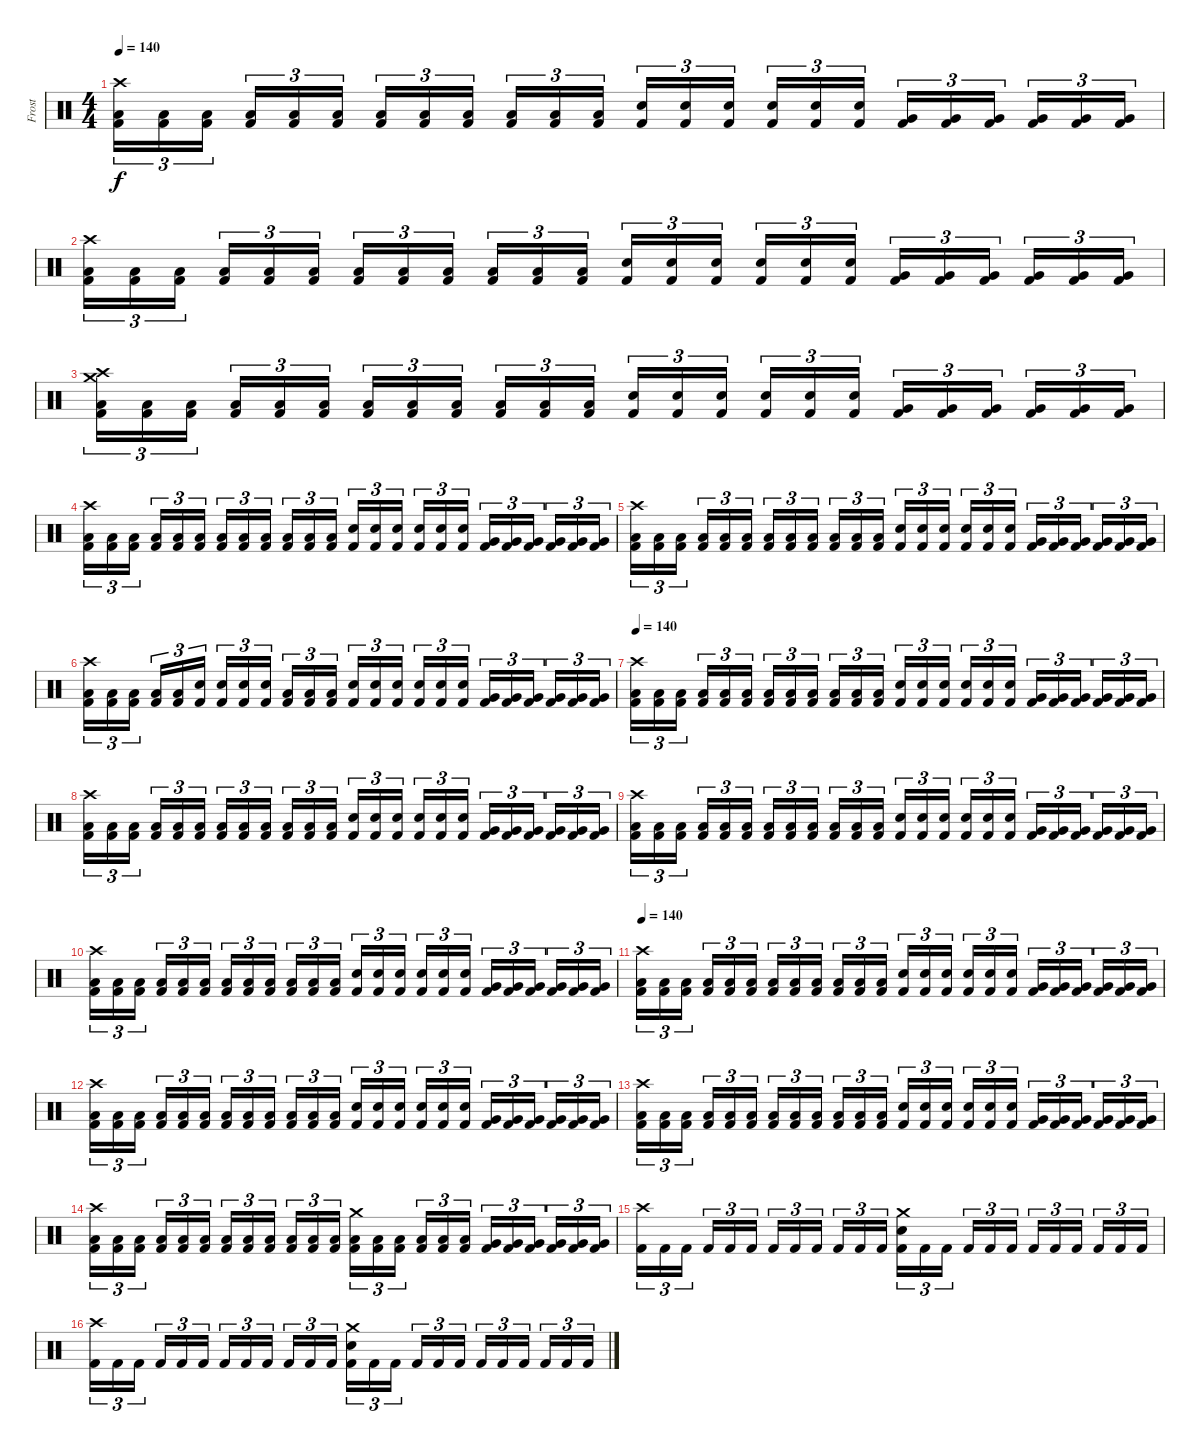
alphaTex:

\track ("Frost" "Frost") {instrument percussion}
\staff {score}
\articulation defaults
\ts (4 4)
\tempo 140
\clef neutral
\ks c
("Crash high (hit)" "Low Tom (hit)" "Kick (hit) 2").16{tu (3 2) dy f} ("Low Tom (hit)" "Kick (hit) 2").16{tu (3 2)} ("Low Tom (hit)" "Kick (hit) 2").16{tu (3 2) beam splitsecondary} ("Low Tom (hit)" "Kick (hit) 2").16{tu (3 2)} ("Low Tom (hit)" "Kick (hit) 2").16{tu (3 2)} ("Low Tom (hit)" "Kick (hit) 2").16{tu (3 2)} ("Low Tom (hit)" "Kick (hit) 2").16{tu (3 2)} ("Low Floor Tom (hit)" "Kick (hit) 2").16{tu (3 2)} ("Low Floor Tom (hit)" "Kick (hit) 2").16{tu (3 2) beam splitsecondary} ("Low Floor Tom (hit)" "Kick (hit) 2").16{tu (3 2)} ("Low Floor Tom (hit)" "Kick (hit) 2").16{tu (3 2)} ("Low Floor Tom (hit)" "Kick (hit) 2").16{tu (3 2)} ("Snare (hit) 2" "Kick (hit) 2").16{tu (3 2)} ("Snare (hit) 2" "Kick (hit) 2").16{tu (3 2)} ("Snare (hit) 2" "Kick (hit) 2").16{tu (3 2) beam splitsecondary} ("Snare (hit) 2" "Kick (hit) 2").16{tu (3 2)} ("Snare (hit) 2" "Kick (hit) 2").16{tu (3 2)} ("Snare (hit) 2" "Kick (hit) 2").16{tu (3 2)} ("Very Low Tom (hit)" "Kick (hit) 2").16{tu (3 2)} ("Very Low Tom (hit)" "Kick (hit) 2").16{tu (3 2)} ("Very Low Tom (hit)" "Kick (hit) 2").16{tu (3 2) beam splitsecondary} ("Very Low Tom (hit)" "Kick (hit) 2").16{tu (3 2)} ("Very Low Tom (hit)" "Kick (hit) 2").16{tu (3 2)} ("Very Low Tom (hit)" "Kick (hit) 2").16{tu (3 2)} |
("Crash high (hit)" "Low Tom (hit)" "Kick (hit) 2").16{tu (3 2)} ("Low Tom (hit)" "Kick (hit) 2").16{tu (3 2)} ("Low Tom (hit)" "Kick (hit) 2").16{tu (3 2) beam splitsecondary} ("Low Tom (hit)" "Kick (hit) 2").16{tu (3 2)} ("Low Tom (hit)" "Kick (hit) 2").16{tu (3 2)} ("Low Tom (hit)" "Kick (hit) 2").16{tu (3 2)} ("Low Tom (hit)" "Kick (hit) 2").16{tu (3 2)} ("Low Floor Tom (hit)" "Kick (hit) 2").16{tu (3 2)} ("Low Floor Tom (hit)" "Kick (hit) 2").16{tu (3 2) beam splitsecondary} ("Low Floor Tom (hit)" "Kick (hit) 2").16{tu (3 2)} ("Low Floor Tom (hit)" "Kick (hit) 2").16{tu (3 2)} ("Low Floor Tom (hit)" "Kick (hit) 2").16{tu (3 2)} ("Snare (hit) 2" "Kick (hit) 2").16{tu (3 2)} ("Snare (hit) 2" "Kick (hit) 2").16{tu (3 2)} ("Snare (hit) 2" "Kick (hit) 2").16{tu (3 2) beam splitsecondary} ("Snare (hit) 2" "Kick (hit) 2").16{tu (3 2)} ("Snare (hit) 2" "Kick (hit) 2").16{tu (3 2)} ("Snare (hit) 2" "Kick (hit) 2").16{tu (3 2)} ("Very Low Tom (hit)" "Kick (hit) 2").16{tu (3 2)} ("Very Low Tom (hit)" "Kick (hit) 2").16{tu (3 2)} ("Very Low Tom (hit)" "Kick (hit) 2").16{tu (3 2) beam splitsecondary} ("Very Low Tom (hit)" "Kick (hit) 2").16{tu (3 2)} ("Very Low Tom (hit)" "Kick (hit) 2").16{tu (3 2)} ("Very Low Tom (hit)" "Kick (hit) 2").16{tu (3 2)} |
("Crash medium (hit)" "Crash high (hit)" "Low Tom (hit)" "Kick (hit) 2").16{tu (3 2)} ("Low Tom (hit)" "Kick (hit) 2").16{tu (3 2)} ("Low Tom (hit)" "Kick (hit) 2").16{tu (3 2) beam splitsecondary} ("Low Tom (hit)" "Kick (hit) 2").16{tu (3 2)} ("Low Tom (hit)" "Kick (hit) 2").16{tu (3 2)} ("Low Tom (hit)" "Kick (hit) 2").16{tu (3 2)} ("Low Tom (hit)" "Kick (hit) 2").16{tu (3 2)} ("Low Floor Tom (hit)" "Kick (hit) 2").16{tu (3 2)} ("Low Floor Tom (hit)" "Kick (hit) 2").16{tu (3 2) beam splitsecondary} ("Low Floor Tom (hit)" "Kick (hit) 2").16{tu (3 2)} ("Low Floor Tom (hit)" "Kick (hit) 2").16{tu (3 2)} ("Low Floor Tom (hit)" "Kick (hit) 2").16{tu (3 2)} ("Snare (hit) 2" "Kick (hit) 2").16{tu (3 2)} ("Snare (hit) 2" "Kick (hit) 2").16{tu (3 2)} ("Snare (hit) 2" "Kick (hit) 2").16{tu (3 2) beam splitsecondary} ("Snare (hit) 2" "Kick (hit) 2").16{tu (3 2)} ("Snare (hit) 2" "Kick (hit) 2").16{tu (3 2)} ("Snare (hit) 2" "Kick (hit) 2").16{tu (3 2)} ("Very Low Tom (hit)" "Kick (hit) 2").16{tu (3 2)} ("Very Low Tom (hit)" "Kick (hit) 2").16{tu (3 2)} ("Very Low Tom (hit)" "Kick (hit) 2").16{tu (3 2) beam splitsecondary} ("Very Low Tom (hit)" "Kick (hit) 2").16{tu (3 2)} ("Very Low Tom (hit)" "Kick (hit) 2").16{tu (3 2)} ("Very Low Tom (hit)" "Kick (hit) 2").16{tu (3 2)} |
("Crash high (hit)" "Low Tom (hit)" "Kick (hit) 2").16{tu (3 2)} ("Low Tom (hit)" "Kick (hit) 2").16{tu (3 2)} ("Low Tom (hit)" "Kick (hit) 2").16{tu (3 2) beam splitsecondary} ("Low Tom (hit)" "Kick (hit) 2").16{tu (3 2)} ("Low Tom (hit)" "Kick (hit) 2").16{tu (3 2)} ("Low Tom (hit)" "Kick (hit) 2").16{tu (3 2)} ("Low Tom (hit)" "Kick (hit) 2").16{tu (3 2)} ("Low Floor Tom (hit)" "Kick (hit) 2").16{tu (3 2)} ("Low Floor Tom (hit)" "Kick (hit) 2").16{tu (3 2) beam splitsecondary} ("Low Floor Tom (hit)" "Kick (hit) 2").16{tu (3 2)} ("Low Floor Tom (hit)" "Kick (hit) 2").16{tu (3 2)} ("Low Floor Tom (hit)" "Kick (hit) 2").16{tu (3 2)} ("Snare (hit) 2" "Kick (hit) 2").16{tu (3 2)} ("Snare (hit) 2" "Kick (hit) 2").16{tu (3 2)} ("Snare (hit) 2" "Kick (hit) 2").16{tu (3 2) beam splitsecondary} ("Snare (hit) 2" "Kick (hit) 2").16{tu (3 2)} ("Snare (hit) 2" "Kick (hit) 2").16{tu (3 2)} ("Snare (hit) 2" "Kick (hit) 2").16{tu (3 2)} ("Very Low Tom (hit)" "Kick (hit) 2").16{tu (3 2)} ("Very Low Tom (hit)" "Kick (hit) 2").16{tu (3 2)} ("Very Low Tom (hit)" "Kick (hit) 2").16{tu (3 2) beam splitsecondary} ("Very Low Tom (hit)" "Kick (hit) 2").16{tu (3 2)} ("Very Low Tom (hit)" "Kick (hit) 2").16{tu (3 2)} ("Very Low Tom (hit)" "Kick (hit) 2").16{tu (3 2)} |
("Crash high (hit)" "Low Tom (hit)" "Kick (hit) 2").16{tu (3 2)} ("Low Tom (hit)" "Kick (hit) 2").16{tu (3 2)} ("Low Tom (hit)" "Kick (hit) 2").16{tu (3 2) beam splitsecondary} ("Low Tom (hit)" "Kick (hit) 2").16{tu (3 2)} ("Low Tom (hit)" "Kick (hit) 2").16{tu (3 2)} ("Low Tom (hit)" "Kick (hit) 2").16{tu (3 2)} ("Low Tom (hit)" "Kick (hit) 2").16{tu (3 2)} ("Low Floor Tom (hit)" "Kick (hit) 2").16{tu (3 2)} ("Low Floor Tom (hit)" "Kick (hit) 2").16{tu (3 2) beam splitsecondary} ("Low Floor Tom (hit)" "Kick (hit) 2").16{tu (3 2)} ("Low Floor Tom (hit)" "Kick (hit) 2").16{tu (3 2)} ("Low Floor Tom (hit)" "Kick (hit) 2").16{tu (3 2)} ("Snare (hit) 2" "Kick (hit) 2").16{tu (3 2)} ("Snare (hit) 2" "Kick (hit) 2").16{tu (3 2)} ("Snare (hit) 2" "Kick (hit) 2").16{tu (3 2) beam splitsecondary} ("Snare (hit) 2" "Kick (hit) 2").16{tu (3 2)} ("Snare (hit) 2" "Kick (hit) 2").16{tu (3 2)} ("Snare (hit) 2" "Kick (hit) 2").16{tu (3 2)} ("Very Low Tom (hit)" "Kick (hit) 2").16{tu (3 2)} ("Very Low Tom (hit)" "Kick (hit) 2").16{tu (3 2)} ("Very Low Tom (hit)" "Kick (hit) 2").16{tu (3 2) beam splitsecondary} ("Very Low Tom (hit)" "Kick (hit) 2").16{tu (3 2)} ("Very Low Tom (hit)" "Kick (hit) 2").16{tu (3 2)} ("Very Low Tom (hit)" "Kick (hit) 2").16{tu (3 2)} |
("Crash high (hit)" "Low Tom (hit)" "Kick (hit) 2").16{tu (3 2)} ("Low Tom (hit)" "Kick (hit) 2").16{tu (3 2)} ("Low Tom (hit)" "Kick (hit) 2").16{tu (3 2) beam splitsecondary} ("Low Tom (hit)" "Kick (hit) 2").16{tu (3 2)} ("Low Tom (hit)" "Kick (hit) 2").16{tu (3 2)} ("Snare (hit) 2" "Kick (hit) 2").16{tu (3 2)} ("Snare (hit) 2" "Kick (hit) 2").16{tu (3 2)} ("Snare (hit) 2" "Kick (hit) 2").16{tu (3 2)} ("Snare (hit) 2" "Kick (hit) 2").16{tu (3 2) beam splitsecondary} ("Low Floor Tom (hit)" "Kick (hit) 2").16{tu (3 2)} ("Low Floor Tom (hit)" "Kick (hit) 2").16{tu (3 2)} ("Low Floor Tom (hit)" "Kick (hit) 2").16{tu (3 2)} ("Snare (hit) 2" "Kick (hit) 2").16{tu (3 2)} ("Snare (hit) 2" "Kick (hit) 2").16{tu (3 2)} ("Snare (hit) 2" "Kick (hit) 2").16{tu (3 2) beam splitsecondary} ("Snare (hit) 2" "Kick (hit) 2").16{tu (3 2)} ("Snare (hit) 2" "Kick (hit) 2").16{tu (3 2)} ("Snare (hit) 2" "Kick (hit) 2").16{tu (3 2)} ("Very Low Tom (hit)" "Kick (hit) 2").16{tu (3 2)} ("Very Low Tom (hit)" "Kick (hit) 2").16{tu (3 2)} ("Very Low Tom (hit)" "Kick (hit) 2").16{tu (3 2) beam splitsecondary} ("Very Low Tom (hit)" "Kick (hit) 2").16{tu (3 2)} ("Very Low Tom (hit)" "Kick (hit) 2").16{tu (3 2)} ("Very Low Tom (hit)" "Kick (hit) 2").16{tu (3 2)} |
\tempo 140
("Crash high (hit)" "Low Tom (hit)" "Kick (hit) 2").16{tu (3 2)} ("Low Tom (hit)" "Kick (hit) 2").16{tu (3 2)} ("Low Tom (hit)" "Kick (hit) 2").16{tu (3 2) beam splitsecondary} ("Low Tom (hit)" "Kick (hit) 2").16{tu (3 2)} ("Low Tom (hit)" "Kick (hit) 2").16{tu (3 2)} ("Low Tom (hit)" "Kick (hit) 2").16{tu (3 2)} ("Low Tom (hit)" "Kick (hit) 2").16{tu (3 2)} ("Low Floor Tom (hit)" "Kick (hit) 2").16{tu (3 2)} ("Low Floor Tom (hit)" "Kick (hit) 2").16{tu (3 2) beam splitsecondary} ("Low Floor Tom (hit)" "Kick (hit) 2").16{tu (3 2)} ("Low Floor Tom (hit)" "Kick (hit) 2").16{tu (3 2)} ("Low Floor Tom (hit)" "Kick (hit) 2").16{tu (3 2)} ("Snare (hit) 2" "Kick (hit) 2").16{tu (3 2)} ("Snare (hit) 2" "Kick (hit) 2").16{tu (3 2)} ("Snare (hit) 2" "Kick (hit) 2").16{tu (3 2) beam splitsecondary} ("Snare (hit) 2" "Kick (hit) 2").16{tu (3 2)} ("Snare (hit) 2" "Kick (hit) 2").16{tu (3 2)} ("Snare (hit) 2" "Kick (hit) 2").16{tu (3 2)} ("Very Low Tom (hit)" "Kick (hit) 2").16{tu (3 2)} ("Very Low Tom (hit)" "Kick (hit) 2").16{tu (3 2)} ("Very Low Tom (hit)" "Kick (hit) 2").16{tu (3 2) beam splitsecondary} ("Very Low Tom (hit)" "Kick (hit) 2").16{tu (3 2)} ("Very Low Tom (hit)" "Kick (hit) 2").16{tu (3 2)} ("Very Low Tom (hit)" "Kick (hit) 2").16{tu (3 2)} |
("Crash high (hit)" "Low Tom (hit)" "Kick (hit) 2").16{tu (3 2)} ("Low Tom (hit)" "Kick (hit) 2").16{tu (3 2)} ("Low Tom (hit)" "Kick (hit) 2").16{tu (3 2) beam splitsecondary} ("Low Tom (hit)" "Kick (hit) 2").16{tu (3 2)} ("Low Tom (hit)" "Kick (hit) 2").16{tu (3 2)} ("Low Tom (hit)" "Kick (hit) 2").16{tu (3 2)} ("Low Tom (hit)" "Kick (hit) 2").16{tu (3 2)} ("Low Floor Tom (hit)" "Kick (hit) 2").16{tu (3 2)} ("Low Floor Tom (hit)" "Kick (hit) 2").16{tu (3 2) beam splitsecondary} ("Low Floor Tom (hit)" "Kick (hit) 2").16{tu (3 2)} ("Low Floor Tom (hit)" "Kick (hit) 2").16{tu (3 2)} ("Low Floor Tom (hit)" "Kick (hit) 2").16{tu (3 2)} ("Snare (hit) 2" "Kick (hit) 2").16{tu (3 2)} ("Snare (hit) 2" "Kick (hit) 2").16{tu (3 2)} ("Snare (hit) 2" "Kick (hit) 2").16{tu (3 2) beam splitsecondary} ("Snare (hit) 2" "Kick (hit) 2").16{tu (3 2)} ("Snare (hit) 2" "Kick (hit) 2").16{tu (3 2)} ("Snare (hit) 2" "Kick (hit) 2").16{tu (3 2)} ("Very Low Tom (hit)" "Kick (hit) 2").16{tu (3 2)} ("Very Low Tom (hit)" "Kick (hit) 2").16{tu (3 2)} ("Very Low Tom (hit)" "Kick (hit) 2").16{tu (3 2) beam splitsecondary} ("Very Low Tom (hit)" "Kick (hit) 2").16{tu (3 2)} ("Very Low Tom (hit)" "Kick (hit) 2").16{tu (3 2)} ("Very Low Tom (hit)" "Kick (hit) 2").16{tu (3 2)} |
("Crash high (hit)" "Low Tom (hit)" "Kick (hit) 2").16{tu (3 2)} ("Low Tom (hit)" "Kick (hit) 2").16{tu (3 2)} ("Low Tom (hit)" "Kick (hit) 2").16{tu (3 2) beam splitsecondary} ("Low Tom (hit)" "Kick (hit) 2").16{tu (3 2)} ("Low Tom (hit)" "Kick (hit) 2").16{tu (3 2)} ("Low Tom (hit)" "Kick (hit) 2").16{tu (3 2)} ("Low Tom (hit)" "Kick (hit) 2").16{tu (3 2)} ("Low Floor Tom (hit)" "Kick (hit) 2").16{tu (3 2)} ("Low Floor Tom (hit)" "Kick (hit) 2").16{tu (3 2) beam splitsecondary} ("Low Floor Tom (hit)" "Kick (hit) 2").16{tu (3 2)} ("Low Floor Tom (hit)" "Kick (hit) 2").16{tu (3 2)} ("Low Floor Tom (hit)" "Kick (hit) 2").16{tu (3 2)} ("Snare (hit) 2" "Kick (hit) 2").16{tu (3 2)} ("Snare (hit) 2" "Kick (hit) 2").16{tu (3 2)} ("Snare (hit) 2" "Kick (hit) 2").16{tu (3 2) beam splitsecondary} ("Snare (hit) 2" "Kick (hit) 2").16{tu (3 2)} ("Snare (hit) 2" "Kick (hit) 2").16{tu (3 2)} ("Snare (hit) 2" "Kick (hit) 2").16{tu (3 2)} ("Very Low Tom (hit)" "Kick (hit) 2").16{tu (3 2)} ("Very Low Tom (hit)" "Kick (hit) 2").16{tu (3 2)} ("Very Low Tom (hit)" "Kick (hit) 2").16{tu (3 2) beam splitsecondary} ("Very Low Tom (hit)" "Kick (hit) 2").16{tu (3 2)} ("Very Low Tom (hit)" "Kick (hit) 2").16{tu (3 2)} ("Very Low Tom (hit)" "Kick (hit) 2").16{tu (3 2)} |
("Crash high (hit)" "Low Tom (hit)" "Kick (hit) 2").16{tu (3 2)} ("Low Tom (hit)" "Kick (hit) 2").16{tu (3 2)} ("Low Tom (hit)" "Kick (hit) 2").16{tu (3 2) beam splitsecondary} ("Low Tom (hit)" "Kick (hit) 2").16{tu (3 2)} ("Low Tom (hit)" "Kick (hit) 2").16{tu (3 2)} ("Low Tom (hit)" "Kick (hit) 2").16{tu (3 2)} ("Low Tom (hit)" "Kick (hit) 2").16{tu (3 2)} ("Low Floor Tom (hit)" "Kick (hit) 2").16{tu (3 2)} ("Low Floor Tom (hit)" "Kick (hit) 2").16{tu (3 2) beam splitsecondary} ("Low Floor Tom (hit)" "Kick (hit) 2").16{tu (3 2)} ("Low Floor Tom (hit)" "Kick (hit) 2").16{tu (3 2)} ("Low Floor Tom (hit)" "Kick (hit) 2").16{tu (3 2)} ("Snare (hit) 2" "Kick (hit) 2").16{tu (3 2)} ("Snare (hit) 2" "Kick (hit) 2").16{tu (3 2)} ("Snare (hit) 2" "Kick (hit) 2").16{tu (3 2) beam splitsecondary} ("Snare (hit) 2" "Kick (hit) 2").16{tu (3 2)} ("Snare (hit) 2" "Kick (hit) 2").16{tu (3 2)} ("Snare (hit) 2" "Kick (hit) 2").16{tu (3 2)} ("Very Low Tom (hit)" "Kick (hit) 2").16{tu (3 2)} ("Very Low Tom (hit)" "Kick (hit) 2").16{tu (3 2)} ("Very Low Tom (hit)" "Kick (hit) 2").16{tu (3 2) beam splitsecondary} ("Very Low Tom (hit)" "Kick (hit) 2").16{tu (3 2)} ("Very Low Tom (hit)" "Kick (hit) 2").16{tu (3 2)} ("Very Low Tom (hit)" "Kick (hit) 2").16{tu (3 2)} |
\tempo 140
("Crash high (hit)" "Low Tom (hit)" "Kick (hit) 2").16{tu (3 2)} ("Low Tom (hit)" "Kick (hit) 2").16{tu (3 2)} ("Low Tom (hit)" "Kick (hit) 2").16{tu (3 2) beam splitsecondary} ("Low Tom (hit)" "Kick (hit) 2").16{tu (3 2)} ("Low Tom (hit)" "Kick (hit) 2").16{tu (3 2)} ("Low Tom (hit)" "Kick (hit) 2").16{tu (3 2)} ("Low Tom (hit)" "Kick (hit) 2").16{tu (3 2)} ("Low Floor Tom (hit)" "Kick (hit) 2").16{tu (3 2)} ("Low Floor Tom (hit)" "Kick (hit) 2").16{tu (3 2) beam splitsecondary} ("Low Floor Tom (hit)" "Kick (hit) 2").16{tu (3 2)} ("Low Floor Tom (hit)" "Kick (hit) 2").16{tu (3 2)} ("Low Floor Tom (hit)" "Kick (hit) 2").16{tu (3 2)} ("Snare (hit) 2" "Kick (hit) 2").16{tu (3 2)} ("Snare (hit) 2" "Kick (hit) 2").16{tu (3 2)} ("Snare (hit) 2" "Kick (hit) 2").16{tu (3 2) beam splitsecondary} ("Snare (hit) 2" "Kick (hit) 2").16{tu (3 2)} ("Snare (hit) 2" "Kick (hit) 2").16{tu (3 2)} ("Snare (hit) 2" "Kick (hit) 2").16{tu (3 2)} ("Very Low Tom (hit)" "Kick (hit) 2").16{tu (3 2)} ("Very Low Tom (hit)" "Kick (hit) 2").16{tu (3 2)} ("Very Low Tom (hit)" "Kick (hit) 2").16{tu (3 2) beam splitsecondary} ("Very Low Tom (hit)" "Kick (hit) 2").16{tu (3 2)} ("Very Low Tom (hit)" "Kick (hit) 2").16{tu (3 2)} ("Very Low Tom (hit)" "Kick (hit) 2").16{tu (3 2)} |
("Crash high (hit)" "Low Tom (hit)" "Kick (hit) 2").16{tu (3 2)} ("Low Tom (hit)" "Kick (hit) 2").16{tu (3 2)} ("Low Tom (hit)" "Kick (hit) 2").16{tu (3 2) beam splitsecondary} ("Low Tom (hit)" "Kick (hit) 2").16{tu (3 2)} ("Low Tom (hit)" "Kick (hit) 2").16{tu (3 2)} ("Low Tom (hit)" "Kick (hit) 2").16{tu (3 2)} ("Low Tom (hit)" "Kick (hit) 2").16{tu (3 2)} ("Low Floor Tom (hit)" "Kick (hit) 2").16{tu (3 2)} ("Low Floor Tom (hit)" "Kick (hit) 2").16{tu (3 2) beam splitsecondary} ("Low Floor Tom (hit)" "Kick (hit) 2").16{tu (3 2)} ("Low Floor Tom (hit)" "Kick (hit) 2").16{tu (3 2)} ("Low Floor Tom (hit)" "Kick (hit) 2").16{tu (3 2)} ("Snare (hit) 2" "Kick (hit) 2").16{tu (3 2)} ("Snare (hit) 2" "Kick (hit) 2").16{tu (3 2)} ("Snare (hit) 2" "Kick (hit) 2").16{tu (3 2) beam splitsecondary} ("Snare (hit) 2" "Kick (hit) 2").16{tu (3 2)} ("Snare (hit) 2" "Kick (hit) 2").16{tu (3 2)} ("Snare (hit) 2" "Kick (hit) 2").16{tu (3 2)} ("Very Low Tom (hit)" "Kick (hit) 2").16{tu (3 2)} ("Very Low Tom (hit)" "Kick (hit) 2").16{tu (3 2)} ("Very Low Tom (hit)" "Kick (hit) 2").16{tu (3 2) beam splitsecondary} ("Very Low Tom (hit)" "Kick (hit) 2").16{tu (3 2)} ("Very Low Tom (hit)" "Kick (hit) 2").16{tu (3 2)} ("Very Low Tom (hit)" "Kick (hit) 2").16{tu (3 2)} |
("Crash high (hit)" "Low Tom (hit)" "Kick (hit) 2").16{tu (3 2)} ("Low Tom (hit)" "Kick (hit) 2").16{tu (3 2)} ("Low Tom (hit)" "Kick (hit) 2").16{tu (3 2) beam splitsecondary} ("Low Tom (hit)" "Kick (hit) 2").16{tu (3 2)} ("Low Tom (hit)" "Kick (hit) 2").16{tu (3 2)} ("Low Tom (hit)" "Kick (hit) 2").16{tu (3 2)} ("Low Tom (hit)" "Kick (hit) 2").16{tu (3 2)} ("Low Floor Tom (hit)" "Kick (hit) 2").16{tu (3 2)} ("Low Floor Tom (hit)" "Kick (hit) 2").16{tu (3 2) beam splitsecondary} ("Low Floor Tom (hit)" "Kick (hit) 2").16{tu (3 2)} ("Low Floor Tom (hit)" "Kick (hit) 2").16{tu (3 2)} ("Low Floor Tom (hit)" "Kick (hit) 2").16{tu (3 2)} ("Snare (hit) 2" "Kick (hit) 2").16{tu (3 2)} ("Snare (hit) 2" "Kick (hit) 2").16{tu (3 2)} ("Snare (hit) 2" "Kick (hit) 2").16{tu (3 2) beam splitsecondary} ("Snare (hit) 2" "Kick (hit) 2").16{tu (3 2)} ("Snare (hit) 2" "Kick (hit) 2").16{tu (3 2)} ("Snare (hit) 2" "Kick (hit) 2").16{tu (3 2)} ("Very Low Tom (hit)" "Kick (hit) 2").16{tu (3 2)} ("Very Low Tom (hit)" "Kick (hit) 2").16{tu (3 2)} ("Very Low Tom (hit)" "Kick (hit) 2").16{tu (3 2) beam splitsecondary} ("Very Low Tom (hit)" "Kick (hit) 2").16{tu (3 2)} ("Very Low Tom (hit)" "Kick (hit) 2").16{tu (3 2)} ("Very Low Tom (hit)" "Kick (hit) 2").16{tu (3 2)} |
("Crash high (hit)" "Low Tom (hit)" "Kick (hit) 2").16{tu (3 2)} ("Low Tom (hit)" "Kick (hit) 2").16{tu (3 2)} ("Low Tom (hit)" "Kick (hit) 2").16{tu (3 2) beam splitsecondary} ("Low Tom (hit)" "Kick (hit) 2").16{tu (3 2)} ("Low Tom (hit)" "Kick (hit) 2").16{tu (3 2)} ("Low Tom (hit)" "Kick (hit) 2").16{tu (3 2)} ("Low Tom (hit)" "Kick (hit) 2").16{tu (3 2)} ("Low Floor Tom (hit)" "Kick (hit) 2").16{tu (3 2)} ("Low Floor Tom (hit)" "Kick (hit) 2").16{tu (3 2) beam splitsecondary} ("Low Floor Tom (hit)" "Kick (hit) 2").16{tu (3 2)} ("Low Floor Tom (hit)" "Kick (hit) 2").16{tu (3 2)} ("Low Floor Tom (hit)" "Kick (hit) 2").16{tu (3 2)} ("Crash medium (hit)" "Low Tom (hit)" "Kick (hit) 2").16{tu (3 2)} ("Low Tom (hit)" "Kick (hit) 2").16{tu (3 2)} ("Low Tom (hit)" "Kick (hit) 2").16{tu (3 2) beam splitsecondary} ("Low Tom (hit)" "Kick (hit) 2").16{tu (3 2)} ("Low Tom (hit)" "Kick (hit) 2").16{tu (3 2)} ("Low Tom (hit)" "Kick (hit) 2").16{tu (3 2)} ("Very Low Tom (hit)" "Kick (hit) 2").16{tu (3 2)} ("Very Low Tom (hit)" "Kick (hit) 2").16{tu (3 2)} ("Very Low Tom (hit)" "Kick (hit) 2").16{tu (3 2) beam splitsecondary} ("Very Low Tom (hit)" "Kick (hit) 2").16{tu (3 2)} ("Very Low Tom (hit)" "Kick (hit) 2").16{tu (3 2)} ("Very Low Tom (hit)" "Kick (hit) 2").16{tu (3 2)} |
("Crash high (hit)" "Kick (hit) 2").16{tu (3 2)} "Kick (hit) 2".16{tu (3 2)} "Kick (hit) 2".16{tu (3 2) beam splitsecondary} "Kick (hit) 2".16{tu (3 2)} "Kick (hit) 2".16{tu (3 2)} "Kick (hit) 2".16{tu (3 2)} "Kick (hit) 2".16{tu (3 2)} "Kick (hit) 2".16{tu (3 2)} "Kick (hit) 2".16{tu (3 2) beam splitsecondary} "Kick (hit) 2".16{tu (3 2)} "Kick (hit) 2".16{tu (3 2)} "Kick (hit) 2".16{tu (3 2)} ("Crash medium (hit)" "Snare (hit) 2" "Kick (hit) 2").16{tu (3 2)} "Kick (hit) 2".16{tu (3 2)} "Kick (hit) 2".16{tu (3 2) beam splitsecondary} "Kick (hit) 2".16{tu (3 2)} "Kick (hit) 2".16{tu (3 2)} "Kick (hit) 2".16{tu (3 2)} "Kick (hit) 2".16{tu (3 2)} "Kick (hit) 2".16{tu (3 2)} "Kick (hit) 2".16{tu (3 2) beam splitsecondary} "Kick (hit) 2".16{tu (3 2)} "Kick (hit) 2".16{tu (3 2)} "Kick (hit) 2".16{tu (3 2)} |
("Crash high (hit)" "Kick (hit) 2").16{tu (3 2)} "Kick (hit) 2".16{tu (3 2)} "Kick (hit) 2".16{tu (3 2) beam splitsecondary} "Kick (hit) 2".16{tu (3 2)} "Kick (hit) 2".16{tu (3 2)} "Kick (hit) 2".16{tu (3 2)} "Kick (hit) 2".16{tu (3 2)} "Kick (hit) 2".16{tu (3 2)} "Kick (hit) 2".16{tu (3 2) beam splitsecondary} "Kick (hit) 2".16{tu (3 2)} "Kick (hit) 2".16{tu (3 2)} "Kick (hit) 2".16{tu (3 2)} ("Crash medium (hit)" "Snare (hit) 2" "Kick (hit) 2").16{tu (3 2)} "Kick (hit) 2".16{tu (3 2)} "Kick (hit) 2".16{tu (3 2) beam splitsecondary} "Kick (hit) 2".16{tu (3 2)} "Kick (hit) 2".16{tu (3 2)} "Kick (hit) 2".16{tu (3 2)} "Kick (hit) 2".16{tu (3 2)} "Kick (hit) 2".16{tu (3 2)} "Kick (hit) 2".16{tu (3 2) beam splitsecondary} "Kick (hit) 2".16{tu (3 2)} "Kick (hit) 2".16{tu (3 2)} "Kick (hit) 2".16{tu (3 2)}
